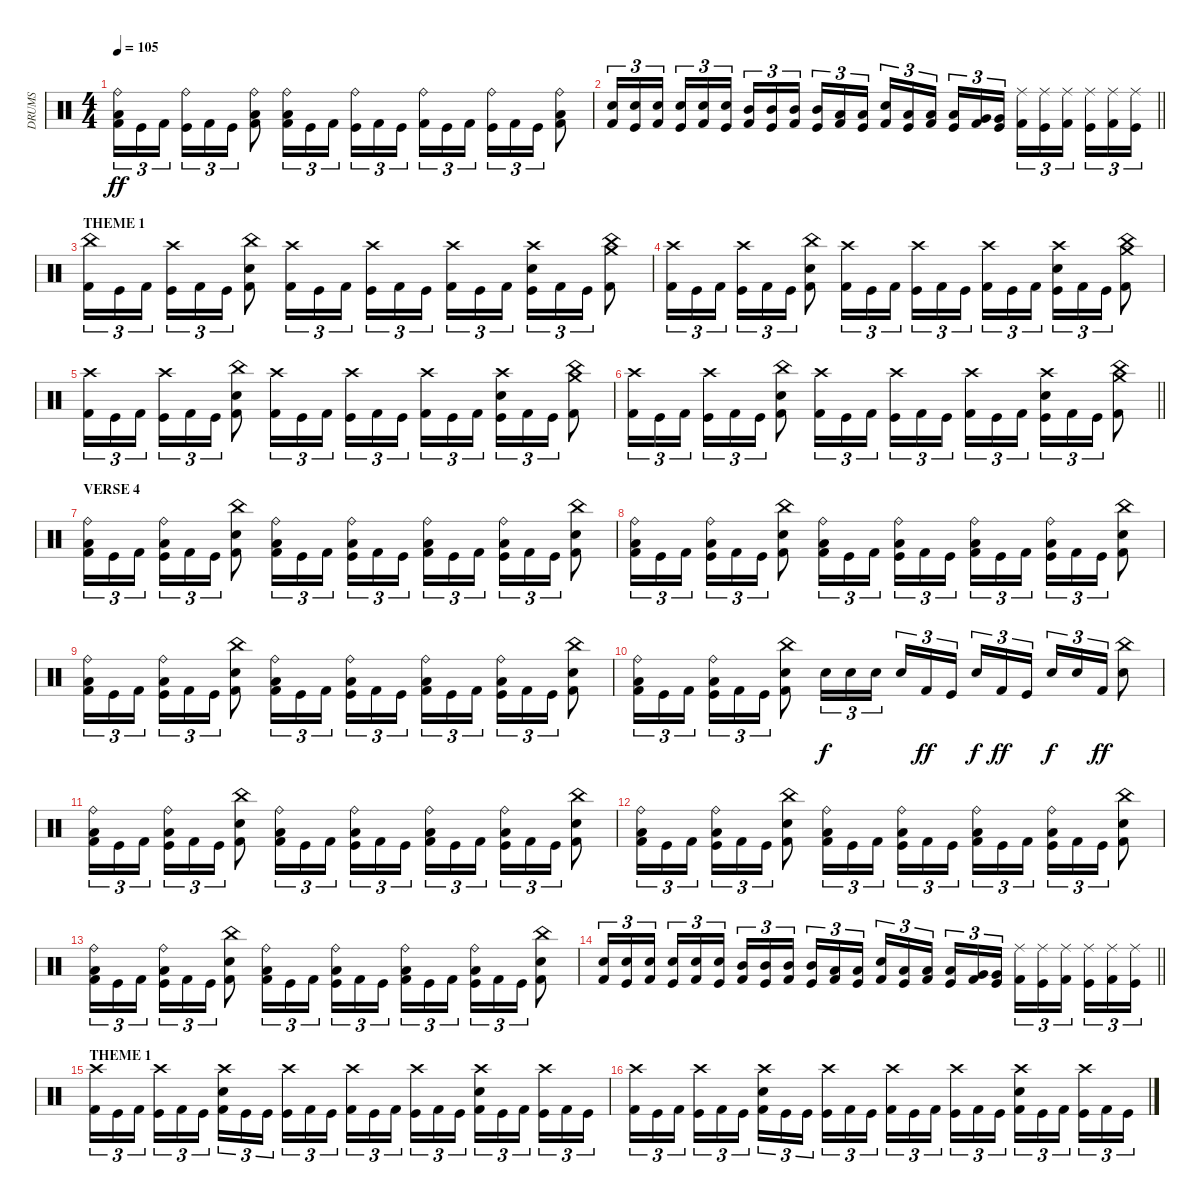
\track ("DRUMS" "DRUMS") {instrument percussion}
\staff {score}
\articulation defaults
\ts (4 4)
\tempo 105
\clef neutral
\ks c
("Ride (bell)" "Low Tom (hit)" "Kick (hit) 2").16{tu (3 2) dy ff} "Kick (hit)".16{tu (3 2)} "Kick (hit) 2".16{tu (3 2) beam splitsecondary} ("Ride (bell)" "Kick (hit)").16{tu (3 2)} "Kick (hit) 2".16{tu (3 2)} "Kick (hit)".16{tu (3 2)} ("Ride (bell)" "Low Tom (hit)" "Kick (hit) 2").8 ("Ride (bell)" "Low Tom (hit)" "Kick (hit) 2").16{tu (3 2)} "Kick (hit)".16{tu (3 2)} "Kick (hit) 2".16{tu (3 2)} ("Ride (bell)" "Kick (hit)").16{tu (3 2)} "Kick (hit) 2".16{tu (3 2)} "Kick (hit)".16{tu (3 2) beam splitsecondary} ("Ride (bell)" "Kick (hit) 2").16{tu (3 2)} "Kick (hit)".16{tu (3 2)} "Kick (hit) 2".16{tu (3 2)} ("Ride (bell)" "Kick (hit)").16{tu (3 2)} "Kick (hit) 2".16{tu (3 2)} "Kick (hit)".16{tu (3 2)} ("Ride (bell)" "Low Tom (hit)" "Kick (hit) 2").8 |
\barLineRight lightlight
("Electric Snare (hit)" "Kick (hit) 2").16{tu (3 2)} ("Snare (hit) 2" "Kick (hit)").16{tu (3 2)} ("Electric Snare (hit)" "Kick (hit) 2").16{tu (3 2) beam splitsecondary} ("Snare (hit) 2" "Kick (hit)").16{tu (3 2)} ("Electric Snare (hit)" "Kick (hit) 2").16{tu (3 2)} ("Snare (hit) 2" "Kick (hit)").16{tu (3 2)} ("Mid Tom (hit)" "Kick (hit) 2").16{tu (3 2)} ("Mid Tom (hit)" "Kick (hit)").16{tu (3 2)} ("Mid Tom (hit)" "Kick (hit) 2").16{tu (3 2) beam splitsecondary} ("Mid Tom (hit)" "Kick (hit)").16{tu (3 2)} ("Low Tom (hit)" "Kick (hit) 2").16{tu (3 2)} ("Low Tom (hit)" "Kick (hit)").16{tu (3 2)} ("Electric Snare (hit)" "Kick (hit) 2").16{tu (3 2)} ("Low Tom (hit)" "Kick (hit)").16{tu (3 2)} ("Low Tom (hit)" "Kick (hit) 2").16{tu (3 2) beam splitsecondary} ("Low Tom (hit)" "Kick (hit)").16{tu (3 2)} ("Very Low Tom (hit)" "Kick (hit) 2").16{tu (3 2)} ("Very Low Tom (hit)" "Kick (hit)").16{tu (3 2)} ("Ride (middle)" "Kick (hit) 2").16{tu (3 2)} ("Ride (middle)" "Kick (hit)").16{tu (3 2)} ("Ride (middle)" "Kick (hit) 2").16{tu (3 2) beam splitsecondary} ("Ride (middle)" "Kick (hit)").16{tu (3 2)} ("Ride (middle)" "Kick (hit) 2").16{tu (3 2)} ("Ride (middle)" "Kick (hit)").16{tu (3 2)} |
\section ("" "THEME 1")
("China (hit)" "Kick (hit) 2").16{tu (3 2)} "Kick (hit)".16{tu (3 2)} "Kick (hit) 2".16{tu (3 2) beam splitsecondary} ("Crash high (hit)" "Kick (hit)").16{tu (3 2)} "Kick (hit) 2".16{tu (3 2)} "Kick (hit)".16{tu (3 2)} ("China (hit)" "Snare (hit) 2" "Kick (hit) 2").8 ("Crash high (hit)" "Kick (hit) 2").16{tu (3 2)} "Kick (hit)".16{tu (3 2)} "Kick (hit) 2".16{tu (3 2)} ("Crash high (hit)" "Kick (hit)").16{tu (3 2)} "Kick (hit) 2".16{tu (3 2)} "Kick (hit)".16{tu (3 2) beam splitsecondary} ("Crash high (hit)" "Kick (hit) 2").16{tu (3 2)} "Kick (hit)".16{tu (3 2)} "Kick (hit) 2".16{tu (3 2)} ("Crash high (hit)" "Snare (hit) 2" "Kick (hit)").16{tu (3 2)} "Kick (hit) 2".16{tu (3 2)} "Kick (hit)".16{tu (3 2)} ("Crash medium (hit)" "China (hit)" "Kick (hit) 2").8 |
("Crash high (hit)" "Kick (hit) 2").16{tu (3 2)} "Kick (hit)".16{tu (3 2)} "Kick (hit) 2".16{tu (3 2) beam splitsecondary} ("Crash high (hit)" "Kick (hit)").16{tu (3 2)} "Kick (hit) 2".16{tu (3 2)} "Kick (hit)".16{tu (3 2)} ("China (hit)" "Snare (hit) 2" "Kick (hit) 2").8 ("Crash high (hit)" "Kick (hit) 2").16{tu (3 2)} "Kick (hit)".16{tu (3 2)} "Kick (hit) 2".16{tu (3 2)} ("Crash high (hit)" "Kick (hit)").16{tu (3 2)} "Kick (hit) 2".16{tu (3 2)} "Kick (hit)".16{tu (3 2) beam splitsecondary} ("Crash high (hit)" "Kick (hit) 2").16{tu (3 2)} "Kick (hit)".16{tu (3 2)} "Kick (hit) 2".16{tu (3 2)} ("Crash high (hit)" "Snare (hit) 2" "Kick (hit)").16{tu (3 2)} "Kick (hit) 2".16{tu (3 2)} "Kick (hit)".16{tu (3 2)} ("Crash medium (hit)" "China (hit)" "Kick (hit) 2").8 |
("Crash high (hit)" "Kick (hit) 2").16{tu (3 2)} "Kick (hit)".16{tu (3 2)} "Kick (hit) 2".16{tu (3 2) beam splitsecondary} ("Crash high (hit)" "Kick (hit)").16{tu (3 2)} "Kick (hit) 2".16{tu (3 2)} "Kick (hit)".16{tu (3 2)} ("China (hit)" "Snare (hit) 2" "Kick (hit) 2").8 ("Crash high (hit)" "Kick (hit) 2").16{tu (3 2)} "Kick (hit)".16{tu (3 2)} "Kick (hit) 2".16{tu (3 2)} ("Crash high (hit)" "Kick (hit)").16{tu (3 2)} "Kick (hit) 2".16{tu (3 2)} "Kick (hit)".16{tu (3 2) beam splitsecondary} ("Crash high (hit)" "Kick (hit) 2").16{tu (3 2)} "Kick (hit)".16{tu (3 2)} "Kick (hit) 2".16{tu (3 2)} ("Crash high (hit)" "Snare (hit) 2" "Kick (hit)").16{tu (3 2)} "Kick (hit) 2".16{tu (3 2)} "Kick (hit)".16{tu (3 2)} ("Crash medium (hit)" "China (hit)" "Kick (hit) 2").8 |
\barLineRight lightlight
("Crash high (hit)" "Kick (hit) 2").16{tu (3 2)} "Kick (hit)".16{tu (3 2)} "Kick (hit) 2".16{tu (3 2) beam splitsecondary} ("Crash high (hit)" "Kick (hit)").16{tu (3 2)} "Kick (hit) 2".16{tu (3 2)} "Kick (hit)".16{tu (3 2)} ("China (hit)" "Snare (hit) 2" "Kick (hit) 2").8 ("Crash high (hit)" "Kick (hit) 2").16{tu (3 2)} "Kick (hit)".16{tu (3 2)} "Kick (hit) 2".16{tu (3 2)} ("Crash high (hit)" "Kick (hit)").16{tu (3 2)} "Kick (hit) 2".16{tu (3 2)} "Kick (hit)".16{tu (3 2) beam splitsecondary} ("Crash high (hit)" "Kick (hit) 2").16{tu (3 2)} "Kick (hit)".16{tu (3 2)} "Kick (hit) 2".16{tu (3 2)} ("Crash high (hit)" "Snare (hit) 2" "Kick (hit)").16{tu (3 2)} "Kick (hit) 2".16{tu (3 2)} "Kick (hit)".16{tu (3 2)} ("Crash medium (hit)" "China (hit)" "Kick (hit) 2").8 |
\section ("" "VERSE 4")
("Ride (bell)" "Low Tom (hit)" "Kick (hit) 2").16{tu (3 2)} "Kick (hit)".16{tu (3 2)} "Kick (hit) 2".16{tu (3 2) beam splitsecondary} ("Ride (bell)" "Low Tom (hit)" "Kick (hit)").16{tu (3 2)} "Kick (hit) 2".16{tu (3 2)} "Kick (hit)".16{tu (3 2)} ("China (hit)" "Snare (hit) 2" "Kick (hit) 2").8 ("Ride (bell)" "Low Tom (hit)" "Kick (hit) 2").16{tu (3 2)} "Kick (hit)".16{tu (3 2)} "Kick (hit) 2".16{tu (3 2)} ("Ride (bell)" "Low Tom (hit)" "Kick (hit)").16{tu (3 2)} "Kick (hit) 2".16{tu (3 2)} "Kick (hit)".16{tu (3 2) beam splitsecondary} ("Ride (bell)" "Low Tom (hit)" "Kick (hit) 2").16{tu (3 2)} "Kick (hit)".16{tu (3 2)} "Kick (hit) 2".16{tu (3 2)} ("Ride (bell)" "Low Tom (hit)" "Kick (hit)").16{tu (3 2)} "Kick (hit) 2".16{tu (3 2)} "Kick (hit)".16{tu (3 2)} ("China (hit)" "Snare (hit) 2" "Kick (hit) 2").8 |
("Ride (bell)" "Low Tom (hit)" "Kick (hit) 2").16{tu (3 2)} "Kick (hit)".16{tu (3 2)} "Kick (hit) 2".16{tu (3 2) beam splitsecondary} ("Ride (bell)" "Low Tom (hit)" "Kick (hit)").16{tu (3 2)} "Kick (hit) 2".16{tu (3 2)} "Kick (hit)".16{tu (3 2)} ("China (hit)" "Snare (hit) 2" "Kick (hit) 2").8 ("Ride (bell)" "Low Tom (hit)" "Kick (hit) 2").16{tu (3 2)} "Kick (hit)".16{tu (3 2)} "Kick (hit) 2".16{tu (3 2)} ("Ride (bell)" "Low Tom (hit)" "Kick (hit)").16{tu (3 2)} "Kick (hit) 2".16{tu (3 2)} "Kick (hit)".16{tu (3 2) beam splitsecondary} ("Ride (bell)" "Low Tom (hit)" "Kick (hit) 2").16{tu (3 2)} "Kick (hit)".16{tu (3 2)} "Kick (hit) 2".16{tu (3 2)} ("Ride (bell)" "Low Tom (hit)" "Kick (hit)").16{tu (3 2)} "Kick (hit) 2".16{tu (3 2)} "Kick (hit)".16{tu (3 2)} ("China (hit)" "Snare (hit) 2" "Kick (hit) 2").8 |
("Ride (bell)" "Low Tom (hit)" "Kick (hit) 2").16{tu (3 2)} "Kick (hit)".16{tu (3 2)} "Kick (hit) 2".16{tu (3 2) beam splitsecondary} ("Ride (bell)" "Low Tom (hit)" "Kick (hit)").16{tu (3 2)} "Kick (hit) 2".16{tu (3 2)} "Kick (hit)".16{tu (3 2)} ("China (hit)" "Snare (hit) 2" "Kick (hit) 2").8 ("Ride (bell)" "Low Tom (hit)" "Kick (hit) 2").16{tu (3 2)} "Kick (hit)".16{tu (3 2)} "Kick (hit) 2".16{tu (3 2)} ("Ride (bell)" "Low Tom (hit)" "Kick (hit)").16{tu (3 2)} "Kick (hit) 2".16{tu (3 2)} "Kick (hit)".16{tu (3 2) beam splitsecondary} ("Ride (bell)" "Low Tom (hit)" "Kick (hit) 2").16{tu (3 2)} "Kick (hit)".16{tu (3 2)} "Kick (hit) 2".16{tu (3 2)} ("Ride (bell)" "Low Tom (hit)" "Kick (hit)").16{tu (3 2)} "Kick (hit) 2".16{tu (3 2)} "Kick (hit)".16{tu (3 2)} ("China (hit)" "Snare (hit) 2" "Kick (hit) 2").8 |
("Ride (bell)" "Low Tom (hit)" "Kick (hit) 2").16{tu (3 2)} "Kick (hit)".16{tu (3 2)} "Kick (hit) 2".16{tu (3 2) beam splitsecondary} ("Ride (bell)" "Low Tom (hit)" "Kick (hit)").16{tu (3 2)} "Kick (hit) 2".16{tu (3 2)} "Kick (hit)".16{tu (3 2)} ("China (hit)" "Snare (hit) 2" "Kick (hit) 2").8 "Electric Snare (hit)".16{tu (3 2) dy f} "Snare (hit) 2".16{tu (3 2)} "Electric Snare (hit)".16{tu (3 2)} "Snare (hit) 2".16{tu (3 2)} "Kick (hit) 2".16{tu (3 2) dy ff} "Kick (hit)".16{tu (3 2) beam splitsecondary} "Electric Snare (hit)".16{tu (3 2) dy f} "Kick (hit) 2".16{tu (3 2) dy ff} "Kick (hit)".16{tu (3 2)} "Electric Snare (hit)".16{tu (3 2) dy f} "Snare (hit) 2".16{tu (3 2)} "Kick (hit) 2".16{tu (3 2) dy ff} ("China (hit)" "Snare (hit) 2").8 |
("Ride (bell)" "Low Tom (hit)" "Kick (hit) 2").16{tu (3 2)} "Kick (hit)".16{tu (3 2)} "Kick (hit) 2".16{tu (3 2) beam splitsecondary} ("Ride (bell)" "Low Tom (hit)" "Kick (hit)").16{tu (3 2)} "Kick (hit) 2".16{tu (3 2)} "Kick (hit)".16{tu (3 2)} ("China (hit)" "Snare (hit) 2" "Kick (hit) 2").8 ("Ride (bell)" "Low Tom (hit)" "Kick (hit) 2").16{tu (3 2)} "Kick (hit)".16{tu (3 2)} "Kick (hit) 2".16{tu (3 2)} ("Ride (bell)" "Low Tom (hit)" "Kick (hit)").16{tu (3 2)} "Kick (hit) 2".16{tu (3 2)} "Kick (hit)".16{tu (3 2) beam splitsecondary} ("Ride (bell)" "Low Tom (hit)" "Kick (hit) 2").16{tu (3 2)} "Kick (hit)".16{tu (3 2)} "Kick (hit) 2".16{tu (3 2)} ("Ride (bell)" "Low Tom (hit)" "Kick (hit)").16{tu (3 2)} "Kick (hit) 2".16{tu (3 2)} "Kick (hit)".16{tu (3 2)} ("China (hit)" "Snare (hit) 2" "Kick (hit) 2").8 |
("Ride (bell)" "Low Tom (hit)" "Kick (hit) 2").16{tu (3 2)} "Kick (hit)".16{tu (3 2)} "Kick (hit) 2".16{tu (3 2) beam splitsecondary} ("Ride (bell)" "Low Tom (hit)" "Kick (hit)").16{tu (3 2)} "Kick (hit) 2".16{tu (3 2)} "Kick (hit)".16{tu (3 2)} ("China (hit)" "Snare (hit) 2" "Kick (hit) 2").8 ("Ride (bell)" "Low Tom (hit)" "Kick (hit) 2").16{tu (3 2)} "Kick (hit)".16{tu (3 2)} "Kick (hit) 2".16{tu (3 2)} ("Ride (bell)" "Low Tom (hit)" "Kick (hit)").16{tu (3 2)} "Kick (hit) 2".16{tu (3 2)} "Kick (hit)".16{tu (3 2) beam splitsecondary} ("Ride (bell)" "Low Tom (hit)" "Kick (hit) 2").16{tu (3 2)} "Kick (hit)".16{tu (3 2)} "Kick (hit) 2".16{tu (3 2)} ("Ride (bell)" "Low Tom (hit)" "Kick (hit)").16{tu (3 2)} "Kick (hit) 2".16{tu (3 2)} "Kick (hit)".16{tu (3 2)} ("China (hit)" "Snare (hit) 2" "Kick (hit) 2").8 |
("Ride (bell)" "Low Tom (hit)" "Kick (hit) 2").16{tu (3 2)} "Kick (hit)".16{tu (3 2)} "Kick (hit) 2".16{tu (3 2) beam splitsecondary} ("Ride (bell)" "Low Tom (hit)" "Kick (hit)").16{tu (3 2)} "Kick (hit) 2".16{tu (3 2)} "Kick (hit)".16{tu (3 2)} ("China (hit)" "Snare (hit) 2" "Kick (hit) 2").8 ("Ride (bell)" "Low Tom (hit)" "Kick (hit) 2").16{tu (3 2)} "Kick (hit)".16{tu (3 2)} "Kick (hit) 2".16{tu (3 2)} ("Ride (bell)" "Low Tom (hit)" "Kick (hit)").16{tu (3 2)} "Kick (hit) 2".16{tu (3 2)} "Kick (hit)".16{tu (3 2) beam splitsecondary} ("Ride (bell)" "Low Tom (hit)" "Kick (hit) 2").16{tu (3 2)} "Kick (hit)".16{tu (3 2)} "Kick (hit) 2".16{tu (3 2)} ("Ride (bell)" "Low Tom (hit)" "Kick (hit)").16{tu (3 2)} "Kick (hit) 2".16{tu (3 2)} "Kick (hit)".16{tu (3 2)} ("China (hit)" "Snare (hit) 2" "Kick (hit) 2").8 |
\barLineRight lightlight
("Electric Snare (hit)" "Kick (hit) 2").16{tu (3 2)} ("Snare (hit) 2" "Kick (hit)").16{tu (3 2)} ("Electric Snare (hit)" "Kick (hit) 2").16{tu (3 2) beam splitsecondary} ("Snare (hit) 2" "Kick (hit)").16{tu (3 2)} ("Electric Snare (hit)" "Kick (hit) 2").16{tu (3 2)} ("Snare (hit) 2" "Kick (hit)").16{tu (3 2)} ("Mid Tom (hit)" "Kick (hit) 2").16{tu (3 2)} ("Mid Tom (hit)" "Kick (hit)").16{tu (3 2)} ("Mid Tom (hit)" "Kick (hit) 2").16{tu (3 2) beam splitsecondary} ("Mid Tom (hit)" "Kick (hit)").16{tu (3 2)} ("Low Tom (hit)" "Kick (hit) 2").16{tu (3 2)} ("Low Tom (hit)" "Kick (hit)").16{tu (3 2)} ("Electric Snare (hit)" "Kick (hit) 2").16{tu (3 2)} ("Low Tom (hit)" "Kick (hit)").16{tu (3 2)} ("Low Tom (hit)" "Kick (hit) 2").16{tu (3 2) beam splitsecondary} ("Low Tom (hit)" "Kick (hit)").16{tu (3 2)} ("Very Low Tom (hit)" "Kick (hit) 2").16{tu (3 2)} ("Very Low Tom (hit)" "Kick (hit)").16{tu (3 2)} ("Ride (middle)" "Kick (hit) 2").16{tu (3 2)} ("Ride (middle)" "Kick (hit)").16{tu (3 2)} ("Ride (middle)" "Kick (hit) 2").16{tu (3 2) beam splitsecondary} ("Ride (middle)" "Kick (hit)").16{tu (3 2)} ("Ride (middle)" "Kick (hit) 2").16{tu (3 2)} ("Ride (middle)" "Kick (hit)").16{tu (3 2)} |
\section ("" "THEME 1")
("Crash high (hit)" "Kick (hit) 2").16{tu (3 2)} "Kick (hit)".16{tu (3 2)} "Kick (hit) 2".16{tu (3 2) beam splitsecondary} ("Crash high (hit)" "Kick (hit)").16{tu (3 2)} "Kick (hit) 2".16{tu (3 2)} "Kick (hit)".16{tu (3 2)} ("Crash high (hit)" "Snare (hit) 2" "Kick (hit) 2").16{tu (3 2)} "Kick (hit)".16{tu (3 2)} "Kick (hit)".16{tu (3 2) beam splitsecondary} ("Crash high (hit)" "Kick (hit)").16{tu (3 2)} "Kick (hit) 2".16{tu (3 2)} "Kick (hit)".16{tu (3 2)} ("Crash high (hit)" "Kick (hit) 2").16{tu (3 2)} "Kick (hit)".16{tu (3 2)} "Kick (hit) 2".16{tu (3 2) beam splitsecondary} ("Crash high (hit)" "Kick (hit)").16{tu (3 2)} "Kick (hit) 2".16{tu (3 2)} "Kick (hit)".16{tu (3 2)} ("Crash high (hit)" "Snare (hit) 2" "Kick (hit) 2").16{tu (3 2)} "Kick (hit)".16{tu (3 2)} "Kick (hit) 2".16{tu (3 2) beam splitsecondary} ("Crash high (hit)" "Kick (hit)").16{tu (3 2)} "Kick (hit) 2".16{tu (3 2)} "Kick (hit)".16{tu (3 2)} |
("Crash high (hit)" "Kick (hit) 2").16{tu (3 2)} "Kick (hit)".16{tu (3 2)} "Kick (hit) 2".16{tu (3 2) beam splitsecondary} ("Crash high (hit)" "Kick (hit)").16{tu (3 2)} "Kick (hit) 2".16{tu (3 2)} "Kick (hit)".16{tu (3 2)} ("Crash high (hit)" "Snare (hit) 2" "Kick (hit) 2").16{tu (3 2)} "Kick (hit)".16{tu (3 2)} "Kick (hit)".16{tu (3 2) beam splitsecondary} ("Crash high (hit)" "Kick (hit)").16{tu (3 2)} "Kick (hit) 2".16{tu (3 2)} "Kick (hit)".16{tu (3 2)} ("Crash high (hit)" "Kick (hit) 2").16{tu (3 2)} "Kick (hit)".16{tu (3 2)} "Kick (hit) 2".16{tu (3 2) beam splitsecondary} ("Crash high (hit)" "Kick (hit)").16{tu (3 2)} "Kick (hit) 2".16{tu (3 2)} "Kick (hit)".16{tu (3 2)} ("Crash high (hit)" "Snare (hit) 2" "Kick (hit) 2").16{tu (3 2)} "Kick (hit)".16{tu (3 2)} "Kick (hit) 2".16{tu (3 2) beam splitsecondary} ("Crash high (hit)" "Kick (hit)").16{tu (3 2)} "Kick (hit) 2".16{tu (3 2)} "Kick (hit)".16{tu (3 2)}
